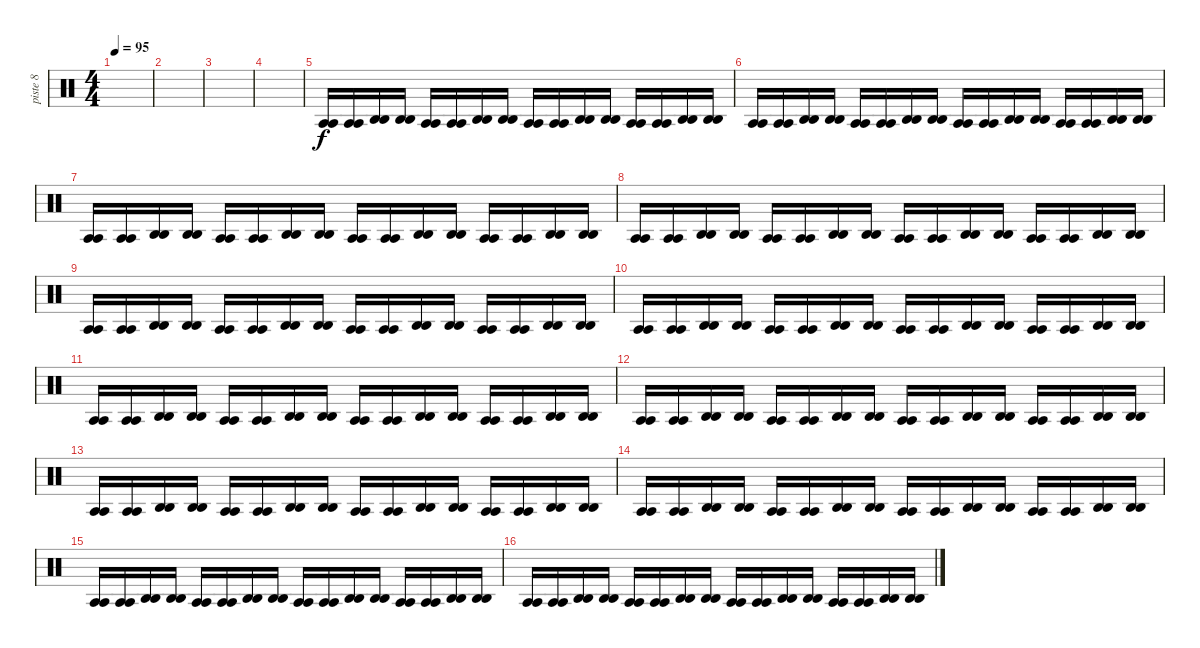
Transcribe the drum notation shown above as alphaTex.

\track ("piste 8" "piste 8") {instrument percussion}
\staff {score}
\articulation defaults
\ts (4 4)
\tempo 95
\clef neutral
\ks c
|
|
|
|
("Agogo tow (hit)" "Agogo tow (hit)").16 ("Agogo tow (hit)" "Agogo tow (hit)").16 ("Agogo high (hit)" "Agogo high (hit)").16 ("Agogo high (hit)" "Agogo high (hit)").16 ("Agogo tow (hit)" "Agogo tow (hit)").16 ("Agogo tow (hit)" "Agogo tow (hit)").16 ("Agogo high (hit)" "Agogo high (hit)").16 ("Agogo high (hit)" "Agogo high (hit)").16 ("Agogo tow (hit)" "Agogo tow (hit)").16 ("Agogo tow (hit)" "Agogo tow (hit)").16 ("Agogo high (hit)" "Agogo high (hit)").16 ("Agogo high (hit)" "Agogo high (hit)").16 ("Agogo tow (hit)" "Agogo tow (hit)").16 ("Agogo tow (hit)" "Agogo tow (hit)").16 ("Agogo high (hit)" "Agogo high (hit)").16 ("Agogo high (hit)" "Agogo high (hit)").16 |
("Agogo tow (hit)" "Agogo tow (hit)").16 ("Agogo tow (hit)" "Agogo tow (hit)").16 ("Agogo high (hit)" "Agogo high (hit)").16 ("Agogo high (hit)" "Agogo high (hit)").16 ("Agogo tow (hit)" "Agogo tow (hit)").16 ("Agogo tow (hit)" "Agogo tow (hit)").16 ("Agogo high (hit)" "Agogo high (hit)").16 ("Agogo high (hit)" "Agogo high (hit)").16 ("Agogo tow (hit)" "Agogo tow (hit)").16 ("Agogo tow (hit)" "Agogo tow (hit)").16 ("Agogo high (hit)" "Agogo high (hit)").16 ("Agogo high (hit)" "Agogo high (hit)").16 ("Agogo tow (hit)" "Agogo tow (hit)").16 ("Agogo tow (hit)" "Agogo tow (hit)").16 ("Agogo high (hit)" "Agogo high (hit)").16 ("Agogo high (hit)" "Agogo high (hit)").16 |
("Agogo tow (hit)" "Agogo tow (hit)").16 ("Agogo tow (hit)" "Agogo tow (hit)").16 ("Agogo high (hit)" "Agogo high (hit)").16 ("Agogo high (hit)" "Agogo high (hit)").16 ("Agogo tow (hit)" "Agogo tow (hit)").16 ("Agogo tow (hit)" "Agogo tow (hit)").16 ("Agogo high (hit)" "Agogo high (hit)").16 ("Agogo high (hit)" "Agogo high (hit)").16 ("Agogo tow (hit)" "Agogo tow (hit)").16 ("Agogo tow (hit)" "Agogo tow (hit)").16 ("Agogo high (hit)" "Agogo high (hit)").16 ("Agogo high (hit)" "Agogo high (hit)").16 ("Agogo tow (hit)" "Agogo tow (hit)").16 ("Agogo tow (hit)" "Agogo tow (hit)").16 ("Agogo high (hit)" "Agogo high (hit)").16 ("Agogo high (hit)" "Agogo high (hit)").16 |
("Agogo tow (hit)" "Agogo tow (hit)").16 ("Agogo tow (hit)" "Agogo tow (hit)").16 ("Agogo high (hit)" "Agogo high (hit)").16 ("Agogo high (hit)" "Agogo high (hit)").16 ("Agogo tow (hit)" "Agogo tow (hit)").16 ("Agogo tow (hit)" "Agogo tow (hit)").16 ("Agogo high (hit)" "Agogo high (hit)").16 ("Agogo high (hit)" "Agogo high (hit)").16 ("Agogo tow (hit)" "Agogo tow (hit)").16 ("Agogo tow (hit)" "Agogo tow (hit)").16 ("Agogo high (hit)" "Agogo high (hit)").16 ("Agogo high (hit)" "Agogo high (hit)").16 ("Agogo tow (hit)" "Agogo tow (hit)").16 ("Agogo tow (hit)" "Agogo tow (hit)").16 ("Agogo high (hit)" "Agogo high (hit)").16 ("Agogo high (hit)" "Agogo high (hit)").16 |
("Agogo tow (hit)" "Agogo tow (hit)").16 ("Agogo tow (hit)" "Agogo tow (hit)").16 ("Agogo high (hit)" "Agogo high (hit)").16 ("Agogo high (hit)" "Agogo high (hit)").16 ("Agogo tow (hit)" "Agogo tow (hit)").16 ("Agogo tow (hit)" "Agogo tow (hit)").16 ("Agogo high (hit)" "Agogo high (hit)").16 ("Agogo high (hit)" "Agogo high (hit)").16 ("Agogo tow (hit)" "Agogo tow (hit)").16 ("Agogo tow (hit)" "Agogo tow (hit)").16 ("Agogo high (hit)" "Agogo high (hit)").16 ("Agogo high (hit)" "Agogo high (hit)").16 ("Agogo tow (hit)" "Agogo tow (hit)").16 ("Agogo tow (hit)" "Agogo tow (hit)").16 ("Agogo high (hit)" "Agogo high (hit)").16 ("Agogo high (hit)" "Agogo high (hit)").16 |
("Agogo tow (hit)" "Agogo tow (hit)").16 ("Agogo tow (hit)" "Agogo tow (hit)").16 ("Agogo high (hit)" "Agogo high (hit)").16 ("Agogo high (hit)" "Agogo high (hit)").16 ("Agogo tow (hit)" "Agogo tow (hit)").16 ("Agogo tow (hit)" "Agogo tow (hit)").16 ("Agogo high (hit)" "Agogo high (hit)").16 ("Agogo high (hit)" "Agogo high (hit)").16 ("Agogo tow (hit)" "Agogo tow (hit)").16 ("Agogo tow (hit)" "Agogo tow (hit)").16 ("Agogo high (hit)" "Agogo high (hit)").16 ("Agogo high (hit)" "Agogo high (hit)").16 ("Agogo tow (hit)" "Agogo tow (hit)").16 ("Agogo tow (hit)" "Agogo tow (hit)").16 ("Agogo high (hit)" "Agogo high (hit)").16 ("Agogo high (hit)" "Agogo high (hit)").16 |
("Agogo tow (hit)" "Agogo tow (hit)").16 ("Agogo tow (hit)" "Agogo tow (hit)").16 ("Agogo high (hit)" "Agogo high (hit)").16 ("Agogo high (hit)" "Agogo high (hit)").16 ("Agogo tow (hit)" "Agogo tow (hit)").16 ("Agogo tow (hit)" "Agogo tow (hit)").16 ("Agogo high (hit)" "Agogo high (hit)").16 ("Agogo high (hit)" "Agogo high (hit)").16 ("Agogo tow (hit)" "Agogo tow (hit)").16 ("Agogo tow (hit)" "Agogo tow (hit)").16 ("Agogo high (hit)" "Agogo high (hit)").16 ("Agogo high (hit)" "Agogo high (hit)").16 ("Agogo tow (hit)" "Agogo tow (hit)").16 ("Agogo tow (hit)" "Agogo tow (hit)").16 ("Agogo high (hit)" "Agogo high (hit)").16 ("Agogo high (hit)" "Agogo high (hit)").16 |
("Agogo tow (hit)" "Agogo tow (hit)").16 ("Agogo tow (hit)" "Agogo tow (hit)").16 ("Agogo high (hit)" "Agogo high (hit)").16 ("Agogo high (hit)" "Agogo high (hit)").16 ("Agogo tow (hit)" "Agogo tow (hit)").16 ("Agogo tow (hit)" "Agogo tow (hit)").16 ("Agogo high (hit)" "Agogo high (hit)").16 ("Agogo high (hit)" "Agogo high (hit)").16 ("Agogo tow (hit)" "Agogo tow (hit)").16 ("Agogo tow (hit)" "Agogo tow (hit)").16 ("Agogo high (hit)" "Agogo high (hit)").16 ("Agogo high (hit)" "Agogo high (hit)").16 ("Agogo tow (hit)" "Agogo tow (hit)").16 ("Agogo tow (hit)" "Agogo tow (hit)").16 ("Agogo high (hit)" "Agogo high (hit)").16 ("Agogo high (hit)" "Agogo high (hit)").16 |
("Agogo tow (hit)" "Agogo tow (hit)").16 ("Agogo tow (hit)" "Agogo tow (hit)").16 ("Agogo high (hit)" "Agogo high (hit)").16 ("Agogo high (hit)" "Agogo high (hit)").16 ("Agogo tow (hit)" "Agogo tow (hit)").16 ("Agogo tow (hit)" "Agogo tow (hit)").16 ("Agogo high (hit)" "Agogo high (hit)").16 ("Agogo high (hit)" "Agogo high (hit)").16 ("Agogo tow (hit)" "Agogo tow (hit)").16 ("Agogo tow (hit)" "Agogo tow (hit)").16 ("Agogo high (hit)" "Agogo high (hit)").16 ("Agogo high (hit)" "Agogo high (hit)").16 ("Agogo tow (hit)" "Agogo tow (hit)").16 ("Agogo tow (hit)" "Agogo tow (hit)").16 ("Agogo high (hit)" "Agogo high (hit)").16 ("Agogo high (hit)" "Agogo high (hit)").16 |
("Agogo tow (hit)" "Agogo tow (hit)").16 ("Agogo tow (hit)" "Agogo tow (hit)").16 ("Agogo high (hit)" "Agogo high (hit)").16 ("Agogo high (hit)" "Agogo high (hit)").16 ("Agogo tow (hit)" "Agogo tow (hit)").16 ("Agogo tow (hit)" "Agogo tow (hit)").16 ("Agogo high (hit)" "Agogo high (hit)").16 ("Agogo high (hit)" "Agogo high (hit)").16 ("Agogo tow (hit)" "Agogo tow (hit)").16 ("Agogo tow (hit)" "Agogo tow (hit)").16 ("Agogo high (hit)" "Agogo high (hit)").16 ("Agogo high (hit)" "Agogo high (hit)").16 ("Agogo tow (hit)" "Agogo tow (hit)").16 ("Agogo tow (hit)" "Agogo tow (hit)").16 ("Agogo high (hit)" "Agogo high (hit)").16 ("Agogo high (hit)" "Agogo high (hit)").16 |
("Agogo tow (hit)" "Agogo tow (hit)").16 ("Agogo tow (hit)" "Agogo tow (hit)").16 ("Agogo high (hit)" "Agogo high (hit)").16 ("Agogo high (hit)" "Agogo high (hit)").16 ("Agogo tow (hit)" "Agogo tow (hit)").16 ("Agogo tow (hit)" "Agogo tow (hit)").16 ("Agogo high (hit)" "Agogo high (hit)").16 ("Agogo high (hit)" "Agogo high (hit)").16 ("Agogo tow (hit)" "Agogo tow (hit)").16 ("Agogo tow (hit)" "Agogo tow (hit)").16 ("Agogo high (hit)" "Agogo high (hit)").16 ("Agogo high (hit)" "Agogo high (hit)").16 ("Agogo tow (hit)" "Agogo tow (hit)").16 ("Agogo tow (hit)" "Agogo tow (hit)").16 ("Agogo high (hit)" "Agogo high (hit)").16 ("Agogo high (hit)" "Agogo high (hit)").16 |
("Agogo tow (hit)" "Agogo tow (hit)").16 ("Agogo tow (hit)" "Agogo tow (hit)").16 ("Agogo high (hit)" "Agogo high (hit)").16 ("Agogo high (hit)" "Agogo high (hit)").16 ("Agogo tow (hit)" "Agogo tow (hit)").16 ("Agogo tow (hit)" "Agogo tow (hit)").16 ("Agogo high (hit)" "Agogo high (hit)").16 ("Agogo high (hit)" "Agogo high (hit)").16 ("Agogo tow (hit)" "Agogo tow (hit)").16 ("Agogo tow (hit)" "Agogo tow (hit)").16 ("Agogo high (hit)" "Agogo high (hit)").16 ("Agogo high (hit)" "Agogo high (hit)").16 ("Agogo tow (hit)" "Agogo tow (hit)").16 ("Agogo tow (hit)" "Agogo tow (hit)").16 ("Agogo high (hit)" "Agogo high (hit)").16 ("Agogo high (hit)" "Agogo high (hit)").16
